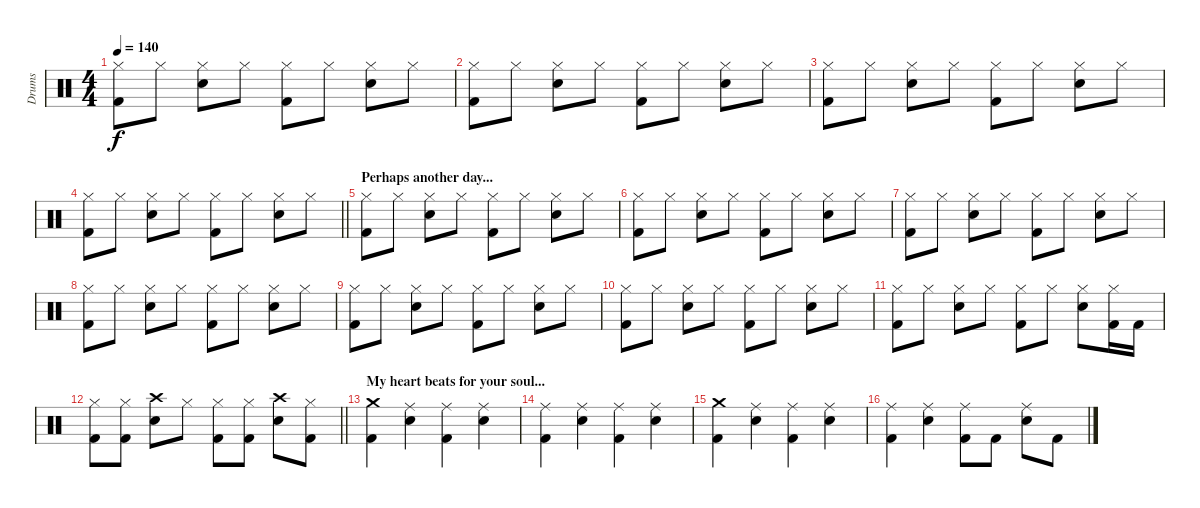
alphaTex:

\track ("Drums" "Drums") {instrument percussion}
\staff {score}
\articulation defaults
\ts (4 4)
\tempo 140
\clef neutral
\ks c
("Hi-Hat (closed)" "Kick (hit) 2").8{dy f} "Hi-Hat (closed)".8 ("Hi-Hat (closed)" "Electric Snare (hit)").8 "Hi-Hat (closed)".8 ("Hi-Hat (closed)" "Kick (hit) 2").8 "Hi-Hat (closed)".8 ("Hi-Hat (closed)" "Electric Snare (hit)").8 "Hi-Hat (closed)".8 |
("Hi-Hat (closed)" "Kick (hit) 2").8 "Hi-Hat (closed)".8 ("Hi-Hat (closed)" "Electric Snare (hit)").8 "Hi-Hat (closed)".8 ("Hi-Hat (closed)" "Kick (hit) 2").8 "Hi-Hat (closed)".8 ("Hi-Hat (closed)" "Electric Snare (hit)").8 "Hi-Hat (closed)".8 |
("Hi-Hat (closed)" "Kick (hit) 2").8 "Hi-Hat (closed)".8 ("Hi-Hat (closed)" "Electric Snare (hit)").8 "Hi-Hat (closed)".8 ("Hi-Hat (closed)" "Kick (hit) 2").8 "Hi-Hat (closed)".8 ("Hi-Hat (closed)" "Electric Snare (hit)").8 "Hi-Hat (closed)".8 |
\barLineRight lightlight
("Hi-Hat (closed)" "Kick (hit) 2").8 "Hi-Hat (closed)".8 ("Hi-Hat (closed)" "Electric Snare (hit)").8 "Hi-Hat (closed)".8 ("Hi-Hat (closed)" "Kick (hit) 2").8 "Hi-Hat (closed)".8 ("Hi-Hat (closed)" "Electric Snare (hit)").8 "Hi-Hat (closed)".8 |
\section ("" "Perhaps another day...")
("Hi-Hat (closed)" "Kick (hit) 2").8 "Hi-Hat (closed)".8 ("Hi-Hat (closed)" "Electric Snare (hit)").8 "Hi-Hat (closed)".8 ("Hi-Hat (closed)" "Kick (hit) 2").8 "Hi-Hat (closed)".8 ("Hi-Hat (closed)" "Electric Snare (hit)").8 "Hi-Hat (closed)".8 |
("Hi-Hat (closed)" "Kick (hit) 2").8 "Hi-Hat (closed)".8 ("Hi-Hat (closed)" "Electric Snare (hit)").8 "Hi-Hat (closed)".8 ("Hi-Hat (closed)" "Kick (hit) 2").8 "Hi-Hat (closed)".8 ("Hi-Hat (closed)" "Electric Snare (hit)").8 "Hi-Hat (closed)".8 |
("Hi-Hat (closed)" "Kick (hit) 2").8 "Hi-Hat (closed)".8 ("Hi-Hat (closed)" "Electric Snare (hit)").8 "Hi-Hat (closed)".8 ("Hi-Hat (closed)" "Kick (hit) 2").8 "Hi-Hat (closed)".8 ("Hi-Hat (closed)" "Electric Snare (hit)").8 "Hi-Hat (closed)".8 |
("Hi-Hat (closed)" "Kick (hit) 2").8 "Hi-Hat (closed)".8 ("Hi-Hat (closed)" "Electric Snare (hit)").8 "Hi-Hat (closed)".8 ("Hi-Hat (closed)" "Kick (hit) 2").8 "Hi-Hat (closed)".8 ("Hi-Hat (closed)" "Electric Snare (hit)").8 "Hi-Hat (closed)".8 |
("Hi-Hat (closed)" "Kick (hit) 2").8 "Hi-Hat (closed)".8 ("Hi-Hat (closed)" "Electric Snare (hit)").8 "Hi-Hat (closed)".8 ("Hi-Hat (closed)" "Kick (hit) 2").8 "Hi-Hat (closed)".8 ("Hi-Hat (closed)" "Electric Snare (hit)").8 "Hi-Hat (closed)".8 |
("Hi-Hat (closed)" "Kick (hit) 2").8 "Hi-Hat (closed)".8 ("Hi-Hat (closed)" "Electric Snare (hit)").8 "Hi-Hat (closed)".8 ("Hi-Hat (closed)" "Kick (hit) 2").8 "Hi-Hat (closed)".8 ("Hi-Hat (closed)" "Electric Snare (hit)").8 "Hi-Hat (closed)".8 |
("Hi-Hat (closed)" "Kick (hit) 2").8 "Hi-Hat (closed)".8 ("Hi-Hat (closed)" "Electric Snare (hit)").8 "Hi-Hat (closed)".8 ("Hi-Hat (closed)" "Kick (hit) 2").8 "Hi-Hat (closed)".8 ("Hi-Hat (closed)" "Electric Snare (hit)").8 ("Hi-Hat (closed)" "Kick (hit) 2").16 "Kick (hit) 2".16 |
\barLineRight lightlight
("Hi-Hat (closed)" "Kick (hit) 2").8 ("Hi-Hat (closed)" "Kick (hit) 2").8 ("Crash high (hit)" "Electric Snare (hit)").8 "Hi-Hat (closed)".8 ("Hi-Hat (closed)" "Kick (hit) 2").8 ("Hi-Hat (closed)" "Kick (hit) 2").8 ("Crash high (hit)" "Electric Snare (hit)").8 ("Hi-Hat (closed)" "Kick (hit) 2").8 |
\section ("" "My heart beats for your soul...")
("Crash medium (hit)" "Kick (hit) 2").4 ("Ride (middle)" "Electric Snare (hit)").4 ("Ride (middle)" "Kick (hit) 2").4 ("Ride (middle)" "Electric Snare (hit)").4 |
("Ride (middle)" "Kick (hit) 2").4 ("Ride (middle)" "Electric Snare (hit)").4 ("Ride (middle)" "Kick (hit) 2").4 ("Ride (middle)" "Electric Snare (hit)").4 |
("Crash medium (hit)" "Kick (hit) 2").4 ("Ride (middle)" "Electric Snare (hit)").4 ("Ride (middle)" "Kick (hit) 2").4 ("Ride (middle)" "Electric Snare (hit)").4 |
("Ride (middle)" "Kick (hit) 2").4 ("Ride (middle)" "Electric Snare (hit)").4 ("Ride (middle)" "Kick (hit) 2").8 "Kick (hit) 2".8 ("Ride (middle)" "Electric Snare (hit)").8 "Kick (hit) 2".8
